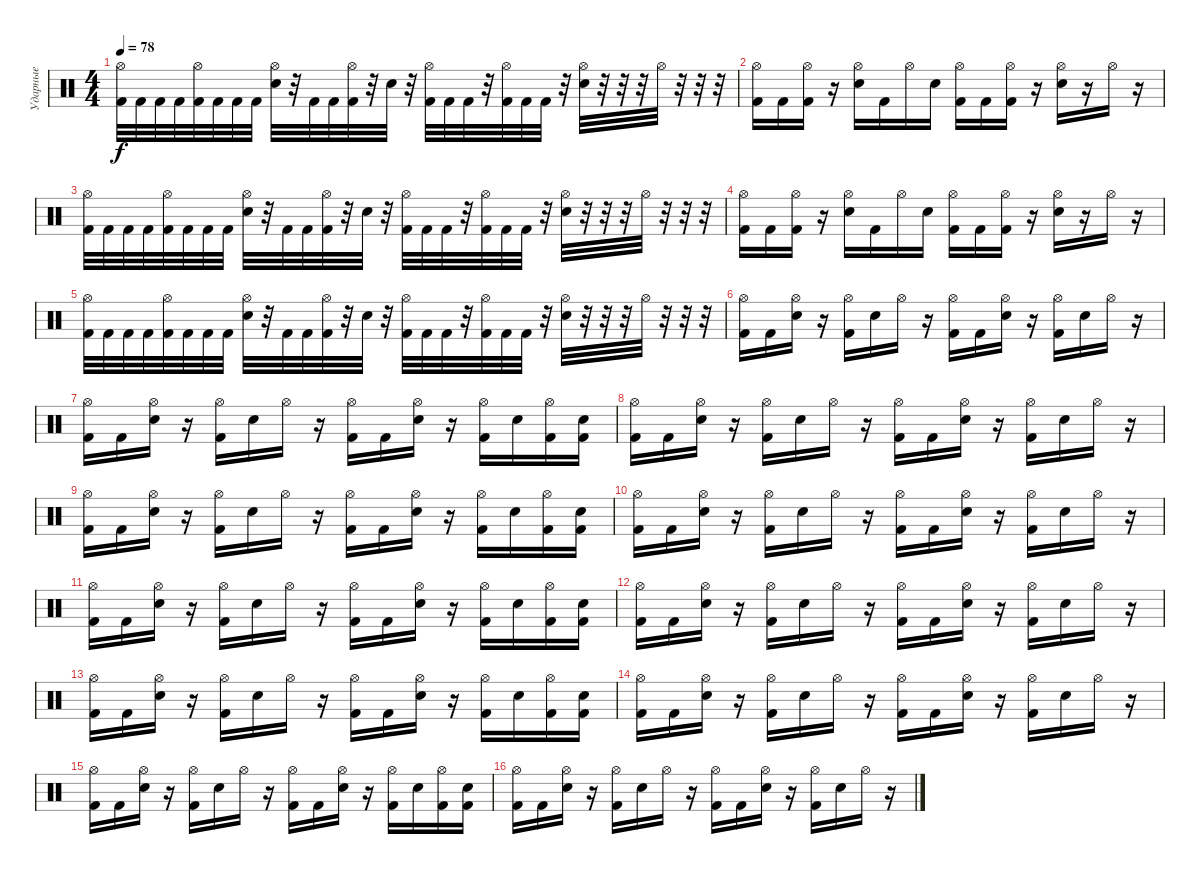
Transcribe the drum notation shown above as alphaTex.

\track ("Ударные" "Ударные") {instrument percussion}
\staff {score}
\articulation defaults
\ts (4 4)
\tempo 78
\clef neutral
\ks c
("Hi-Hat (open)" "Kick (hit) 2").32{dy f} "Kick (hit) 2".32 "Kick (hit) 2".32 "Kick (hit) 2".32 ("Hi-Hat (open)" "Kick (hit) 2").32 "Kick (hit) 2".32 "Kick (hit) 2".32 "Kick (hit) 2".32 ("Electric Snare (hit)" "Hi-Hat (open)").32 r.32 "Kick (hit) 2".32 "Kick (hit) 2".32 ("Hi-Hat (open)" "Kick (hit) 2").32 r.32 "Electric Snare (hit)".32 r.32 ("Hi-Hat (open)" "Kick (hit) 2").32 "Kick (hit) 2".32 "Kick (hit) 2".32 r.32 ("Hi-Hat (open)" "Kick (hit) 2").32 "Kick (hit) 2".32 "Kick (hit) 2".32 r.32 ("Electric Snare (hit)" "Hi-Hat (open)").32 r.32 r.32 r.32 "Hi-Hat (open)".32 r.32 r.32 r.32 |
("Hi-Hat (open)" "Kick (hit) 2").16 "Kick (hit) 2".16 ("Hi-Hat (open)" "Kick (hit) 2").16 r.16 ("Electric Snare (hit)" "Hi-Hat (open)").16 "Kick (hit) 2".16 "Hi-Hat (open)".16 "Electric Snare (hit)".16 ("Hi-Hat (open)" "Kick (hit) 2").16 "Kick (hit) 2".16 ("Hi-Hat (open)" "Kick (hit) 2").16 r.16 ("Electric Snare (hit)" "Hi-Hat (open)").16 r.16 "Hi-Hat (open)".16 r.16 |
("Hi-Hat (open)" "Kick (hit) 2").32 "Kick (hit) 2".32 "Kick (hit) 2".32 "Kick (hit) 2".32 ("Hi-Hat (open)" "Kick (hit) 2").32 "Kick (hit) 2".32 "Kick (hit) 2".32 "Kick (hit) 2".32 ("Electric Snare (hit)" "Hi-Hat (open)").32 r.32 "Kick (hit) 2".32 "Kick (hit) 2".32 ("Hi-Hat (open)" "Kick (hit) 2").32 r.32 "Electric Snare (hit)".32 r.32 ("Hi-Hat (open)" "Kick (hit) 2").32 "Kick (hit) 2".32 "Kick (hit) 2".32 r.32 ("Hi-Hat (open)" "Kick (hit) 2").32 "Kick (hit) 2".32 "Kick (hit) 2".32 r.32 ("Electric Snare (hit)" "Hi-Hat (open)").32 r.32 r.32 r.32 "Hi-Hat (open)".32 r.32 r.32 r.32 |
("Hi-Hat (open)" "Kick (hit) 2").16 "Kick (hit) 2".16 ("Hi-Hat (open)" "Kick (hit) 2").16 r.16 ("Electric Snare (hit)" "Hi-Hat (open)").16 "Kick (hit) 2".16 "Hi-Hat (open)".16 "Electric Snare (hit)".16 ("Hi-Hat (open)" "Kick (hit) 2").16 "Kick (hit) 2".16 ("Hi-Hat (open)" "Kick (hit) 2").16 r.16 ("Electric Snare (hit)" "Hi-Hat (open)").16 r.16 "Hi-Hat (open)".16 r.16 |
("Hi-Hat (open)" "Kick (hit) 2").32 "Kick (hit) 2".32 "Kick (hit) 2".32 "Kick (hit) 2".32 ("Hi-Hat (open)" "Kick (hit) 2").32 "Kick (hit) 2".32 "Kick (hit) 2".32 "Kick (hit) 2".32 ("Electric Snare (hit)" "Hi-Hat (open)").32 r.32 "Kick (hit) 2".32 "Kick (hit) 2".32 ("Hi-Hat (open)" "Kick (hit) 2").32 r.32 "Electric Snare (hit)".32 r.32 ("Hi-Hat (open)" "Kick (hit) 2").32 "Kick (hit) 2".32 "Kick (hit) 2".32 r.32 ("Hi-Hat (open)" "Kick (hit) 2").32 "Kick (hit) 2".32 "Kick (hit) 2".32 r.32 ("Electric Snare (hit)" "Hi-Hat (open)").32 r.32 r.32 r.32 "Hi-Hat (open)".32 r.32 r.32 r.32 |
("Hi-Hat (open)" "Kick (hit) 2").16 "Kick (hit) 2".16 ("Electric Snare (hit)" "Hi-Hat (open)").16 r.16 ("Hi-Hat (open)" "Kick (hit) 2").16 "Electric Snare (hit)".16 "Hi-Hat (open)".16 r.16 ("Hi-Hat (open)" "Kick (hit) 2").16 "Kick (hit) 2".16 ("Electric Snare (hit)" "Hi-Hat (open)").16 r.16 ("Hi-Hat (open)" "Kick (hit) 2").16 "Electric Snare (hit)".16 "Hi-Hat (open)".16 r.16 |
("Hi-Hat (open)" "Kick (hit) 2").16 "Kick (hit) 2".16 ("Electric Snare (hit)" "Hi-Hat (open)").16 r.16 ("Hi-Hat (open)" "Kick (hit) 2").16 "Electric Snare (hit)".16 "Hi-Hat (open)".16 r.16 ("Hi-Hat (open)" "Kick (hit) 2").16 "Kick (hit) 2".16 ("Electric Snare (hit)" "Hi-Hat (open)").16 r.16 ("Hi-Hat (open)" "Kick (hit) 2").16 "Electric Snare (hit)".16 ("Hi-Hat (open)" "Kick (hit) 2").16 ("Electric Snare (hit)" "Kick (hit) 2").16 |
("Hi-Hat (open)" "Kick (hit) 2").16 "Kick (hit) 2".16 ("Electric Snare (hit)" "Hi-Hat (open)").16 r.16 ("Hi-Hat (open)" "Kick (hit) 2").16 "Electric Snare (hit)".16 "Hi-Hat (open)".16 r.16 ("Hi-Hat (open)" "Kick (hit) 2").16 "Kick (hit) 2".16 ("Electric Snare (hit)" "Hi-Hat (open)").16 r.16 ("Hi-Hat (open)" "Kick (hit) 2").16 "Electric Snare (hit)".16 "Hi-Hat (open)".16 r.16 |
("Hi-Hat (open)" "Kick (hit) 2").16 "Kick (hit) 2".16 ("Electric Snare (hit)" "Hi-Hat (open)").16 r.16 ("Hi-Hat (open)" "Kick (hit) 2").16 "Electric Snare (hit)".16 "Hi-Hat (open)".16 r.16 ("Hi-Hat (open)" "Kick (hit) 2").16 "Kick (hit) 2".16 ("Electric Snare (hit)" "Hi-Hat (open)").16 r.16 ("Hi-Hat (open)" "Kick (hit) 2").16 "Electric Snare (hit)".16 ("Hi-Hat (open)" "Kick (hit) 2").16 ("Electric Snare (hit)" "Kick (hit) 2").16 |
("Hi-Hat (open)" "Kick (hit) 2").16 "Kick (hit) 2".16 ("Electric Snare (hit)" "Hi-Hat (open)").16 r.16 ("Hi-Hat (open)" "Kick (hit) 2").16 "Electric Snare (hit)".16 "Hi-Hat (open)".16 r.16 ("Hi-Hat (open)" "Kick (hit) 2").16 "Kick (hit) 2".16 ("Electric Snare (hit)" "Hi-Hat (open)").16 r.16 ("Hi-Hat (open)" "Kick (hit) 2").16 "Electric Snare (hit)".16 "Hi-Hat (open)".16 r.16 |
("Hi-Hat (open)" "Kick (hit) 2").16 "Kick (hit) 2".16 ("Electric Snare (hit)" "Hi-Hat (open)").16 r.16 ("Hi-Hat (open)" "Kick (hit) 2").16 "Electric Snare (hit)".16 "Hi-Hat (open)".16 r.16 ("Hi-Hat (open)" "Kick (hit) 2").16 "Kick (hit) 2".16 ("Electric Snare (hit)" "Hi-Hat (open)").16 r.16 ("Hi-Hat (open)" "Kick (hit) 2").16 "Electric Snare (hit)".16 ("Hi-Hat (open)" "Kick (hit) 2").16 ("Electric Snare (hit)" "Kick (hit) 2").16 |
("Hi-Hat (open)" "Kick (hit) 2").16 "Kick (hit) 2".16 ("Electric Snare (hit)" "Hi-Hat (open)").16 r.16 ("Hi-Hat (open)" "Kick (hit) 2").16 "Electric Snare (hit)".16 "Hi-Hat (open)".16 r.16 ("Hi-Hat (open)" "Kick (hit) 2").16 "Kick (hit) 2".16 ("Electric Snare (hit)" "Hi-Hat (open)").16 r.16 ("Hi-Hat (open)" "Kick (hit) 2").16 "Electric Snare (hit)".16 "Hi-Hat (open)".16 r.16 |
("Hi-Hat (open)" "Kick (hit) 2").16 "Kick (hit) 2".16 ("Electric Snare (hit)" "Hi-Hat (open)").16 r.16 ("Hi-Hat (open)" "Kick (hit) 2").16 "Electric Snare (hit)".16 "Hi-Hat (open)".16 r.16 ("Hi-Hat (open)" "Kick (hit) 2").16 "Kick (hit) 2".16 ("Electric Snare (hit)" "Hi-Hat (open)").16 r.16 ("Hi-Hat (open)" "Kick (hit) 2").16 "Electric Snare (hit)".16 ("Hi-Hat (open)" "Kick (hit) 2").16 ("Electric Snare (hit)" "Kick (hit) 2").16 |
("Hi-Hat (open)" "Kick (hit) 2").16 "Kick (hit) 2".16 ("Electric Snare (hit)" "Hi-Hat (open)").16 r.16 ("Hi-Hat (open)" "Kick (hit) 2").16 "Electric Snare (hit)".16 "Hi-Hat (open)".16 r.16 ("Hi-Hat (open)" "Kick (hit) 2").16 "Kick (hit) 2".16 ("Electric Snare (hit)" "Hi-Hat (open)").16 r.16 ("Hi-Hat (open)" "Kick (hit) 2").16 "Electric Snare (hit)".16 "Hi-Hat (open)".16 r.16 |
("Hi-Hat (open)" "Kick (hit) 2").16 "Kick (hit) 2".16 ("Electric Snare (hit)" "Hi-Hat (open)").16 r.16 ("Hi-Hat (open)" "Kick (hit) 2").16 "Electric Snare (hit)".16 "Hi-Hat (open)".16 r.16 ("Hi-Hat (open)" "Kick (hit) 2").16 "Kick (hit) 2".16 ("Electric Snare (hit)" "Hi-Hat (open)").16 r.16 ("Hi-Hat (open)" "Kick (hit) 2").16 "Electric Snare (hit)".16 ("Hi-Hat (open)" "Kick (hit) 2").16 ("Electric Snare (hit)" "Kick (hit) 2").16 |
("Hi-Hat (open)" "Kick (hit) 2").16 "Kick (hit) 2".16 ("Electric Snare (hit)" "Hi-Hat (open)").16 r.16 ("Hi-Hat (open)" "Kick (hit) 2").16 "Electric Snare (hit)".16 "Hi-Hat (open)".16 r.16 ("Hi-Hat (open)" "Kick (hit) 2").16 "Kick (hit) 2".16 ("Electric Snare (hit)" "Hi-Hat (open)").16 r.16 ("Hi-Hat (open)" "Kick (hit) 2").16 "Electric Snare (hit)".16 "Hi-Hat (open)".16 r.16
